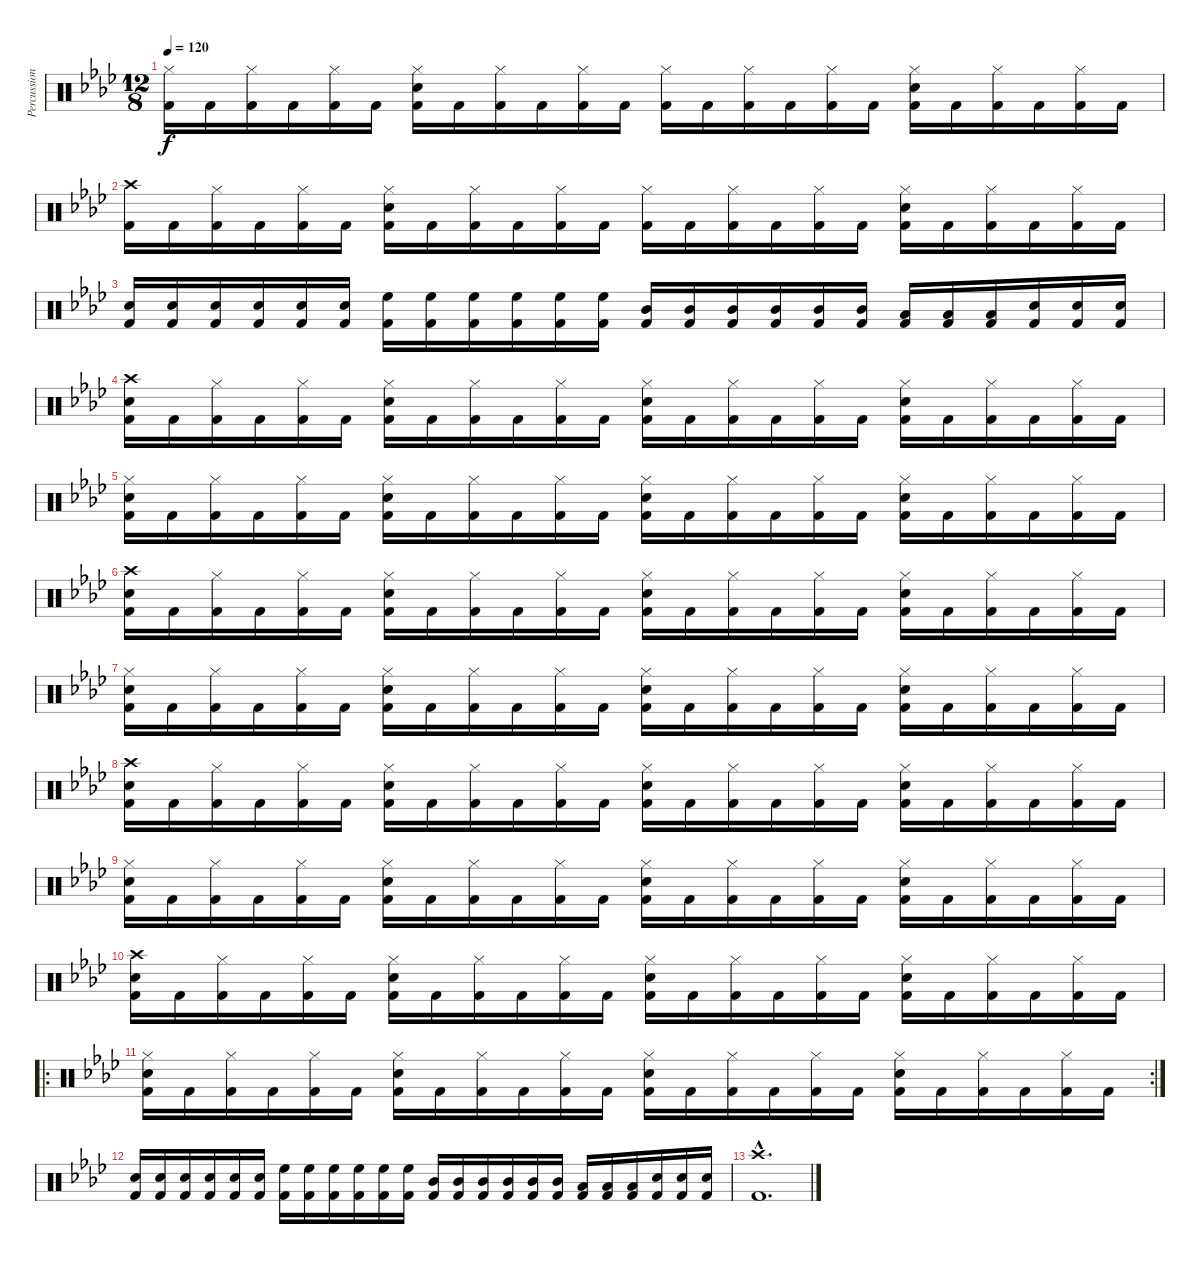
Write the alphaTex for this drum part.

\track ("Percussions" "Percussion") {instrument percussion}
\staff {score}
\articulation defaults
\ts (12 8)
\tempo 120
\clef neutral
\ks fminor
("Hi-Hat (closed)" "Kick (hit) 2").16{dy f} "Kick (hit) 2".16 ("Hi-Hat (closed)" "Kick (hit) 2").16 "Kick (hit) 2".16 ("Hi-Hat (closed)" "Kick (hit) 2").16 "Kick (hit) 2".16 ("Hi-Hat (closed)" "Snare (hit) 2" "Kick (hit) 2").16 "Kick (hit) 2".16 ("Hi-Hat (closed)" "Kick (hit) 2").16 "Kick (hit) 2".16 ("Hi-Hat (closed)" "Kick (hit) 2").16 "Kick (hit) 2".16 ("Hi-Hat (closed)" "Kick (hit) 2").16 "Kick (hit) 2".16 ("Hi-Hat (closed)" "Kick (hit) 2").16 "Kick (hit) 2".16 ("Hi-Hat (closed)" "Kick (hit) 2").16 "Kick (hit) 2".16 ("Hi-Hat (closed)" "Snare (hit) 2" "Kick (hit) 2").16 "Kick (hit) 2".16 ("Hi-Hat (closed)" "Kick (hit) 2").16 "Kick (hit) 2".16 ("Hi-Hat (closed)" "Kick (hit) 2").16 "Kick (hit) 2".16 |
("Crash high (hit)" "Kick (hit) 2").16 "Kick (hit) 2".16 ("Hi-Hat (closed)" "Kick (hit) 2").16 "Kick (hit) 2".16 ("Hi-Hat (closed)" "Kick (hit) 2").16 "Kick (hit) 2".16 ("Hi-Hat (closed)" "Snare (hit) 2" "Kick (hit) 2").16 "Kick (hit) 2".16 ("Hi-Hat (closed)" "Kick (hit) 2").16 "Kick (hit) 2".16 ("Hi-Hat (closed)" "Kick (hit) 2").16 "Kick (hit) 2".16 ("Hi-Hat (closed)" "Kick (hit) 2").16 "Kick (hit) 2".16 ("Hi-Hat (closed)" "Kick (hit) 2").16 "Kick (hit) 2".16 ("Hi-Hat (closed)" "Kick (hit) 2").16 "Kick (hit) 2".16 ("Hi-Hat (closed)" "Snare (hit) 2" "Kick (hit) 2").16 "Kick (hit) 2".16 ("Hi-Hat (closed)" "Kick (hit) 2").16 "Kick (hit) 2".16 ("Hi-Hat (closed)" "Kick (hit) 2").16 "Kick (hit) 2".16 |
("Snare (hit) 2" "Kick (hit) 2").16 ("Snare (hit) 2" "Kick (hit) 2").16 ("Snare (hit) 2" "Kick (hit) 2").16 ("Snare (hit) 2" "Kick (hit) 2").16 ("Snare (hit) 2" "Kick (hit) 2").16 ("Snare (hit) 2" "Kick (hit) 2").16 ("High Floor Tom (hit)" "Kick (hit) 2").16 ("High Floor Tom (hit)" "Kick (hit) 2").16 ("High Floor Tom (hit)" "Kick (hit) 2").16 ("High Floor Tom (hit)" "Kick (hit) 2").16 ("High Floor Tom (hit)" "Kick (hit) 2").16 ("High Floor Tom (hit)" "Kick (hit) 2").16 ("Mid Tom (hit)" "Kick (hit) 2").16 ("Mid Tom (hit)" "Kick (hit) 2").16 ("Mid Tom (hit)" "Kick (hit) 2").16 ("Mid Tom (hit)" "Kick (hit) 2").16 ("Mid Tom (hit)" "Kick (hit) 2").16 ("Mid Tom (hit)" "Kick (hit) 2").16 ("Low Tom (hit)" "Kick (hit) 2").16 ("Low Tom (hit)" "Kick (hit) 2").16 ("Low Tom (hit)" "Kick (hit) 2").16 ("Snare (hit) 2" "Kick (hit) 2").16 ("Snare (hit) 2" "Kick (hit) 2").16 ("Snare (hit) 2" "Kick (hit) 2").16 |
("Crash high (hit)" "Snare (hit) 2" "Kick (hit) 2").16 "Kick (hit) 2".16 ("Hi-Hat (closed)" "Kick (hit) 2").16 "Kick (hit) 2".16 ("Hi-Hat (closed)" "Kick (hit) 2").16 "Kick (hit) 2".16 ("Hi-Hat (closed)" "Snare (hit) 2" "Kick (hit) 2").16 "Kick (hit) 2".16 ("Hi-Hat (closed)" "Kick (hit) 2").16 "Kick (hit) 2".16 ("Hi-Hat (closed)" "Kick (hit) 2").16 "Kick (hit) 2".16 ("Hi-Hat (closed)" "Snare (hit) 2" "Kick (hit) 2").16 "Kick (hit) 2".16 ("Hi-Hat (closed)" "Kick (hit) 2").16 "Kick (hit) 2".16 ("Hi-Hat (closed)" "Kick (hit) 2").16 "Kick (hit) 2".16 ("Hi-Hat (closed)" "Snare (hit) 2" "Kick (hit) 2").16 "Kick (hit) 2".16 ("Hi-Hat (closed)" "Kick (hit) 2").16 "Kick (hit) 2".16 ("Hi-Hat (closed)" "Kick (hit) 2").16 "Kick (hit) 2".16 |
("Hi-Hat (closed)" "Snare (hit) 2" "Kick (hit) 2").16 "Kick (hit) 2".16 ("Hi-Hat (closed)" "Kick (hit) 2").16 "Kick (hit) 2".16 ("Hi-Hat (closed)" "Kick (hit) 2").16 "Kick (hit) 2".16 ("Hi-Hat (closed)" "Snare (hit) 2" "Kick (hit) 2").16 "Kick (hit) 2".16 ("Hi-Hat (closed)" "Kick (hit) 2").16 "Kick (hit) 2".16 ("Hi-Hat (closed)" "Kick (hit) 2").16 "Kick (hit) 2".16 ("Hi-Hat (closed)" "Snare (hit) 2" "Kick (hit) 2").16 "Kick (hit) 2".16 ("Hi-Hat (closed)" "Kick (hit) 2").16 "Kick (hit) 2".16 ("Hi-Hat (closed)" "Kick (hit) 2").16 "Kick (hit) 2".16 ("Hi-Hat (closed)" "Snare (hit) 2" "Kick (hit) 2").16 "Kick (hit) 2".16 ("Hi-Hat (closed)" "Kick (hit) 2").16 "Kick (hit) 2".16 ("Hi-Hat (closed)" "Kick (hit) 2").16 "Kick (hit) 2".16 |
("Crash high (hit)" "Snare (hit) 2" "Kick (hit) 2").16 "Kick (hit) 2".16 ("Hi-Hat (closed)" "Kick (hit) 2").16 "Kick (hit) 2".16 ("Hi-Hat (closed)" "Kick (hit) 2").16 "Kick (hit) 2".16 ("Hi-Hat (closed)" "Snare (hit) 2" "Kick (hit) 2").16 "Kick (hit) 2".16 ("Hi-Hat (closed)" "Kick (hit) 2").16 "Kick (hit) 2".16 ("Hi-Hat (closed)" "Kick (hit) 2").16 "Kick (hit) 2".16 ("Hi-Hat (closed)" "Snare (hit) 2" "Kick (hit) 2").16 "Kick (hit) 2".16 ("Hi-Hat (closed)" "Kick (hit) 2").16 "Kick (hit) 2".16 ("Hi-Hat (closed)" "Kick (hit) 2").16 "Kick (hit) 2".16 ("Hi-Hat (closed)" "Snare (hit) 2" "Kick (hit) 2").16 "Kick (hit) 2".16 ("Hi-Hat (closed)" "Kick (hit) 2").16 "Kick (hit) 2".16 ("Hi-Hat (closed)" "Kick (hit) 2").16 "Kick (hit) 2".16 |
("Hi-Hat (closed)" "Snare (hit) 2" "Kick (hit) 2").16 "Kick (hit) 2".16 ("Hi-Hat (closed)" "Kick (hit) 2").16 "Kick (hit) 2".16 ("Hi-Hat (closed)" "Kick (hit) 2").16 "Kick (hit) 2".16 ("Hi-Hat (closed)" "Snare (hit) 2" "Kick (hit) 2").16 "Kick (hit) 2".16 ("Hi-Hat (closed)" "Kick (hit) 2").16 "Kick (hit) 2".16 ("Hi-Hat (closed)" "Kick (hit) 2").16 "Kick (hit) 2".16 ("Hi-Hat (closed)" "Snare (hit) 2" "Kick (hit) 2").16 "Kick (hit) 2".16 ("Hi-Hat (closed)" "Kick (hit) 2").16 "Kick (hit) 2".16 ("Hi-Hat (closed)" "Kick (hit) 2").16 "Kick (hit) 2".16 ("Hi-Hat (closed)" "Snare (hit) 2" "Kick (hit) 2").16 "Kick (hit) 2".16 ("Hi-Hat (closed)" "Kick (hit) 2").16 "Kick (hit) 2".16 ("Hi-Hat (closed)" "Kick (hit) 2").16 "Kick (hit) 2".16 |
("Crash high (hit)" "Snare (hit) 2" "Kick (hit) 2").16 "Kick (hit) 2".16 ("Hi-Hat (closed)" "Kick (hit) 2").16 "Kick (hit) 2".16 ("Hi-Hat (closed)" "Kick (hit) 2").16 "Kick (hit) 2".16 ("Hi-Hat (closed)" "Snare (hit) 2" "Kick (hit) 2").16 "Kick (hit) 2".16 ("Hi-Hat (closed)" "Kick (hit) 2").16 "Kick (hit) 2".16 ("Hi-Hat (closed)" "Kick (hit) 2").16 "Kick (hit) 2".16 ("Hi-Hat (closed)" "Snare (hit) 2" "Kick (hit) 2").16 "Kick (hit) 2".16 ("Hi-Hat (closed)" "Kick (hit) 2").16 "Kick (hit) 2".16 ("Hi-Hat (closed)" "Kick (hit) 2").16 "Kick (hit) 2".16 ("Hi-Hat (closed)" "Snare (hit) 2" "Kick (hit) 2").16 "Kick (hit) 2".16 ("Hi-Hat (closed)" "Kick (hit) 2").16 "Kick (hit) 2".16 ("Hi-Hat (closed)" "Kick (hit) 2").16 "Kick (hit) 2".16 |
("Hi-Hat (closed)" "Snare (hit) 2" "Kick (hit) 2").16 "Kick (hit) 2".16 ("Hi-Hat (closed)" "Kick (hit) 2").16 "Kick (hit) 2".16 ("Hi-Hat (closed)" "Kick (hit) 2").16 "Kick (hit) 2".16 ("Hi-Hat (closed)" "Snare (hit) 2" "Kick (hit) 2").16 "Kick (hit) 2".16 ("Hi-Hat (closed)" "Kick (hit) 2").16 "Kick (hit) 2".16 ("Hi-Hat (closed)" "Kick (hit) 2").16 "Kick (hit) 2".16 ("Hi-Hat (closed)" "Snare (hit) 2" "Kick (hit) 2").16 "Kick (hit) 2".16 ("Hi-Hat (closed)" "Kick (hit) 2").16 "Kick (hit) 2".16 ("Hi-Hat (closed)" "Kick (hit) 2").16 "Kick (hit) 2".16 ("Hi-Hat (closed)" "Snare (hit) 2" "Kick (hit) 2").16 "Kick (hit) 2".16 ("Hi-Hat (closed)" "Kick (hit) 2").16 "Kick (hit) 2".16 ("Hi-Hat (closed)" "Kick (hit) 2").16 "Kick (hit) 2".16 |
("Crash high (hit)" "Snare (hit) 2" "Kick (hit) 2").16 "Kick (hit) 2".16 ("Hi-Hat (closed)" "Kick (hit) 2").16 "Kick (hit) 2".16 ("Hi-Hat (closed)" "Kick (hit) 2").16 "Kick (hit) 2".16 ("Hi-Hat (closed)" "Snare (hit) 2" "Kick (hit) 2").16 "Kick (hit) 2".16 ("Hi-Hat (closed)" "Kick (hit) 2").16 "Kick (hit) 2".16 ("Hi-Hat (closed)" "Kick (hit) 2").16 "Kick (hit) 2".16 ("Hi-Hat (closed)" "Snare (hit) 2" "Kick (hit) 2").16 "Kick (hit) 2".16 ("Hi-Hat (closed)" "Kick (hit) 2").16 "Kick (hit) 2".16 ("Hi-Hat (closed)" "Kick (hit) 2").16 "Kick (hit) 2".16 ("Hi-Hat (closed)" "Snare (hit) 2" "Kick (hit) 2").16 "Kick (hit) 2".16 ("Hi-Hat (closed)" "Kick (hit) 2").16 "Kick (hit) 2".16 ("Hi-Hat (closed)" "Kick (hit) 2").16 "Kick (hit) 2".16 |
\ro
\rc 2
("Hi-Hat (closed)" "Snare (hit) 2" "Kick (hit) 2").16 "Kick (hit) 2".16 ("Hi-Hat (closed)" "Kick (hit) 2").16 "Kick (hit) 2".16 ("Hi-Hat (closed)" "Kick (hit) 2").16 "Kick (hit) 2".16 ("Hi-Hat (closed)" "Snare (hit) 2" "Kick (hit) 2").16 "Kick (hit) 2".16 ("Hi-Hat (closed)" "Kick (hit) 2").16 "Kick (hit) 2".16 ("Hi-Hat (closed)" "Kick (hit) 2").16 "Kick (hit) 2".16 ("Hi-Hat (closed)" "Snare (hit) 2" "Kick (hit) 2").16 "Kick (hit) 2".16 ("Hi-Hat (closed)" "Kick (hit) 2").16 "Kick (hit) 2".16 ("Hi-Hat (closed)" "Kick (hit) 2").16 "Kick (hit) 2".16 ("Hi-Hat (closed)" "Snare (hit) 2" "Kick (hit) 2").16 "Kick (hit) 2".16 ("Hi-Hat (closed)" "Kick (hit) 2").16 "Kick (hit) 2".16 ("Hi-Hat (closed)" "Kick (hit) 2").16 "Kick (hit) 2".16 |
("Snare (hit) 2" "Kick (hit) 2").16 ("Snare (hit) 2" "Kick (hit) 2").16 ("Snare (hit) 2" "Kick (hit) 2").16 ("Snare (hit) 2" "Kick (hit) 2").16 ("Snare (hit) 2" "Kick (hit) 2").16 ("Snare (hit) 2" "Kick (hit) 2").16 ("High Floor Tom (hit)" "Kick (hit) 2").16 ("High Floor Tom (hit)" "Kick (hit) 2").16 ("High Floor Tom (hit)" "Kick (hit) 2").16 ("High Floor Tom (hit)" "Kick (hit) 2").16 ("High Floor Tom (hit)" "Kick (hit) 2").16 ("High Floor Tom (hit)" "Kick (hit) 2").16 ("Mid Tom (hit)" "Kick (hit) 2").16 ("Mid Tom (hit)" "Kick (hit) 2").16 ("Mid Tom (hit)" "Kick (hit) 2").16 ("Mid Tom (hit)" "Kick (hit) 2").16 ("Mid Tom (hit)" "Kick (hit) 2").16 ("Mid Tom (hit)" "Kick (hit) 2").16 ("Low Tom (hit)" "Kick (hit) 2").16 ("Low Tom (hit)" "Kick (hit) 2").16 ("Low Tom (hit)" "Kick (hit) 2").16 ("Snare (hit) 2" "Kick (hit) 2").16 ("Snare (hit) 2" "Kick (hit) 2").16 ("Snare (hit) 2" "Kick (hit) 2").16 |
("Crash high (hit)"{hac} "Kick (hit) 2"{hac}).1{d}
